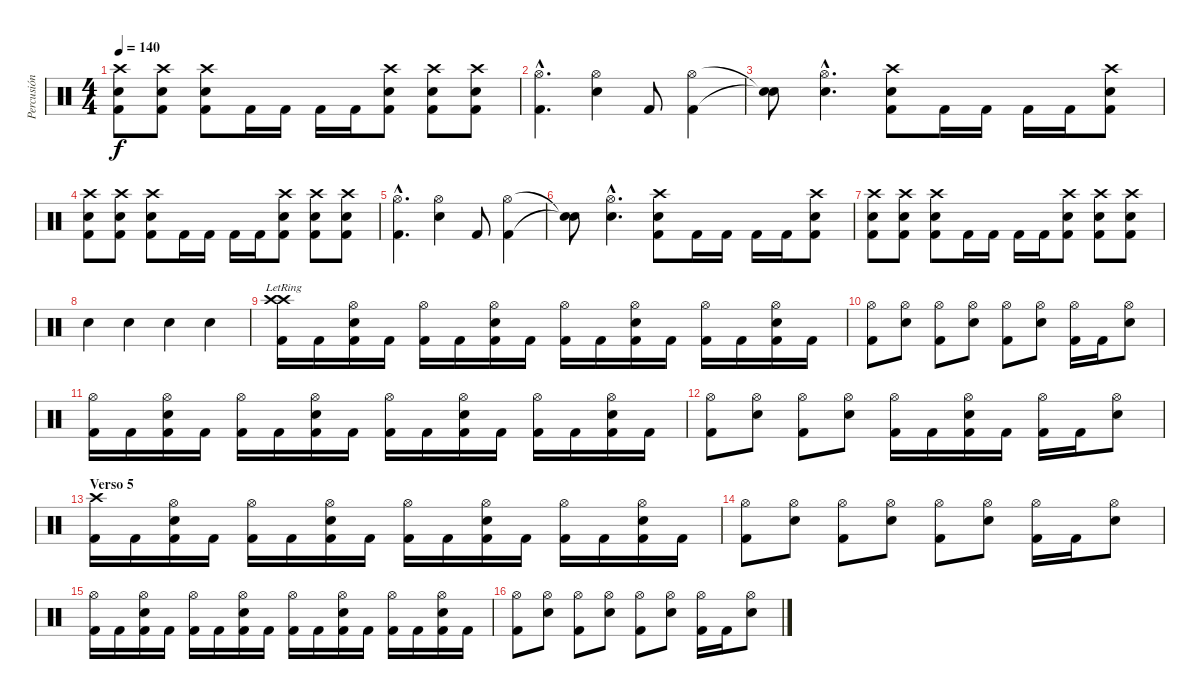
\track ("Percusión" "Percusión") {instrument percussion}
\staff {score}
\articulation defaults
\ts (4 4)
\tempo 140
\clef neutral
\ks c
("Crash high (hit)" "Snare (hit) 2" "Kick (hit) 2").8{dy f} ("Crash high (hit)" "Snare (hit) 2" "Kick (hit) 2").8 ("Crash high (hit)" "Snare (hit) 2" "Kick (hit) 2").8 "Kick (hit) 2".16 "Kick (hit) 2".16 "Kick (hit) 2".16 "Kick (hit) 2".16 ("Crash high (hit)" "Snare (hit) 2" "Kick (hit) 2").8 ("Crash high (hit)" "Snare (hit) 2" "Kick (hit) 2").8 ("Crash high (hit)" "Snare (hit) 2" "Kick (hit) 2").8 |
("Hi-Hat (open)"{hac} "Kick (hit) 2"{hac}).4{d} ("Hi-Hat (open)" "Snare (hit) 2").4 "Kick (hit) 2".8 ("Hi-Hat (open)" "Kick (hit) 2").4 |
("Snare (hit)"{t} "Snare (hit)"{t}).8 ("Hi-Hat (open)"{hac} "Snare (hit) 2"{hac}).4{d} ("Crash high (hit)" "Snare (hit) 2" "Kick (hit) 2").8 "Kick (hit) 2".16 "Kick (hit) 2".16 "Kick (hit) 2".16 "Kick (hit) 2".16 ("Crash high (hit)" "Snare (hit) 2" "Kick (hit) 2").8 |
("Crash high (hit)" "Snare (hit) 2" "Kick (hit) 2").8 ("Crash high (hit)" "Snare (hit) 2" "Kick (hit) 2").8 ("Crash high (hit)" "Snare (hit) 2" "Kick (hit) 2").8 "Kick (hit) 2".16 "Kick (hit) 2".16 "Kick (hit) 2".16 "Kick (hit) 2".16 ("Crash high (hit)" "Snare (hit) 2" "Kick (hit) 2").8 ("Crash high (hit)" "Snare (hit) 2" "Kick (hit) 2").8 ("Crash high (hit)" "Snare (hit) 2" "Kick (hit) 2").8 |
("Hi-Hat (open)"{hac} "Kick (hit) 2"{hac}).4{d} ("Hi-Hat (open)" "Snare (hit) 2").4 "Kick (hit) 2".8 ("Hi-Hat (open)" "Kick (hit) 2").4 |
("Snare (hit)"{t} "Snare (hit)"{t}).8 ("Hi-Hat (open)"{hac} "Snare (hit) 2"{hac}).4{d} ("Crash high (hit)" "Snare (hit) 2" "Kick (hit) 2").8 "Kick (hit) 2".16 "Kick (hit) 2".16 "Kick (hit) 2".16 "Kick (hit) 2".16 ("Crash high (hit)" "Snare (hit) 2" "Kick (hit) 2").8 |
("Crash high (hit)" "Snare (hit) 2" "Kick (hit) 2").8 ("Crash high (hit)" "Snare (hit) 2" "Kick (hit) 2").8 ("Crash high (hit)" "Snare (hit) 2" "Kick (hit) 2").8 "Kick (hit) 2".16 "Kick (hit) 2".16 "Kick (hit) 2".16 "Kick (hit) 2".16 ("Crash high (hit)" "Snare (hit) 2" "Kick (hit) 2").8 ("Crash high (hit)" "Snare (hit) 2" "Kick (hit) 2").8 ("Crash high (hit)" "Snare (hit) 2" "Kick (hit) 2").8 |
"Snare (hit) 2".4 "Snare (hit) 2".4 "Snare (hit) 2".4 "Snare (hit) 2".4 |
("Crash high (hit)"{lr} "Crash high (hit)"{lr} "Kick (hit) 2").16 "Kick (hit) 2".16 ("Hi-Hat (open)" "Snare (hit) 2" "Kick (hit) 2").16 "Kick (hit) 2".16 ("Hi-Hat (open)" "Kick (hit) 2").16 "Kick (hit) 2".16 ("Hi-Hat (open)" "Snare (hit) 2" "Kick (hit) 2").16 "Kick (hit) 2".16 ("Hi-Hat (open)" "Kick (hit) 2").16 "Kick (hit) 2".16 ("Hi-Hat (open)" "Snare (hit) 2" "Kick (hit) 2").16 "Kick (hit) 2".16 ("Hi-Hat (open)" "Kick (hit) 2").16 "Kick (hit) 2".16 ("Hi-Hat (open)" "Snare (hit) 2" "Kick (hit) 2").16 "Kick (hit) 2".16 |
("Hi-Hat (open)" "Kick (hit) 2").8 ("Hi-Hat (open)" "Snare (hit) 2").8 ("Hi-Hat (open)" "Kick (hit) 2").8 ("Hi-Hat (open)" "Snare (hit) 2").8 ("Hi-Hat (open)" "Kick (hit) 2").8 ("Hi-Hat (open)" "Snare (hit) 2").8 ("Hi-Hat (open)" "Kick (hit) 2").16 "Kick (hit) 2".16 ("Hi-Hat (open)" "Snare (hit) 2").8 |
("Hi-Hat (open)" "Kick (hit) 2").16 "Kick (hit) 2".16 ("Hi-Hat (open)" "Snare (hit) 2" "Kick (hit) 2").16 "Kick (hit) 2".16 ("Hi-Hat (open)" "Kick (hit) 2").16 "Kick (hit) 2".16 ("Hi-Hat (open)" "Snare (hit) 2" "Kick (hit) 2").16 "Kick (hit) 2".16 ("Hi-Hat (open)" "Kick (hit) 2").16 "Kick (hit) 2".16 ("Hi-Hat (open)" "Snare (hit) 2" "Kick (hit) 2").16 "Kick (hit) 2".16 ("Hi-Hat (open)" "Kick (hit) 2").16 "Kick (hit) 2".16 ("Hi-Hat (open)" "Snare (hit) 2" "Kick (hit) 2").16 "Kick (hit) 2".16 |
("Hi-Hat (open)" "Kick (hit) 2").8 ("Hi-Hat (open)" "Snare (hit) 2").8 ("Hi-Hat (open)" "Kick (hit) 2").8 ("Hi-Hat (open)" "Snare (hit) 2").8 ("Hi-Hat (open)" "Kick (hit) 2").16 "Kick (hit) 2".16 ("Hi-Hat (open)" "Snare (hit) 2" "Kick (hit) 2").16 "Kick (hit) 2".16 ("Hi-Hat (open)" "Kick (hit) 2").16 "Kick (hit) 2".16 ("Hi-Hat (open)" "Snare (hit) 2").8 |
\section ("" "Verso 5")
("Crash high (hit)" "Kick (hit) 2").16 "Kick (hit) 2".16 ("Hi-Hat (open)" "Snare (hit) 2" "Kick (hit) 2").16 "Kick (hit) 2".16 ("Hi-Hat (open)" "Kick (hit) 2").16 "Kick (hit) 2".16 ("Hi-Hat (open)" "Snare (hit) 2" "Kick (hit) 2").16 "Kick (hit) 2".16 ("Hi-Hat (open)" "Kick (hit) 2").16 "Kick (hit) 2".16 ("Hi-Hat (open)" "Snare (hit) 2" "Kick (hit) 2").16 "Kick (hit) 2".16 ("Hi-Hat (open)" "Kick (hit) 2").16 "Kick (hit) 2".16 ("Hi-Hat (open)" "Snare (hit) 2" "Kick (hit) 2").16 "Kick (hit) 2".16 |
("Hi-Hat (open)" "Kick (hit) 2").8 ("Hi-Hat (open)" "Snare (hit) 2").8 ("Hi-Hat (open)" "Kick (hit) 2").8 ("Hi-Hat (open)" "Snare (hit) 2").8 ("Hi-Hat (open)" "Kick (hit) 2").8 ("Hi-Hat (open)" "Snare (hit) 2").8 ("Hi-Hat (open)" "Kick (hit) 2").16 "Kick (hit) 2".16 ("Hi-Hat (open)" "Snare (hit) 2").8 |
("Hi-Hat (open)" "Kick (hit) 2").16 "Kick (hit) 2".16 ("Hi-Hat (open)" "Snare (hit) 2" "Kick (hit) 2").16 "Kick (hit) 2".16 ("Hi-Hat (open)" "Kick (hit) 2").16 "Kick (hit) 2".16 ("Hi-Hat (open)" "Snare (hit) 2" "Kick (hit) 2").16 "Kick (hit) 2".16 ("Hi-Hat (open)" "Kick (hit) 2").16 "Kick (hit) 2".16 ("Hi-Hat (open)" "Snare (hit) 2" "Kick (hit) 2").16 "Kick (hit) 2".16 ("Hi-Hat (open)" "Kick (hit) 2").16 "Kick (hit) 2".16 ("Hi-Hat (open)" "Snare (hit) 2" "Kick (hit) 2").16 "Kick (hit) 2".16 |
("Hi-Hat (open)" "Kick (hit) 2").8 ("Hi-Hat (open)" "Snare (hit) 2").8 ("Hi-Hat (open)" "Kick (hit) 2").8 ("Hi-Hat (open)" "Snare (hit) 2").8 ("Hi-Hat (open)" "Kick (hit) 2").8 ("Hi-Hat (open)" "Snare (hit) 2").8 ("Hi-Hat (open)" "Kick (hit) 2").16 "Kick (hit) 2".16 ("Hi-Hat (open)" "Snare (hit) 2").8
